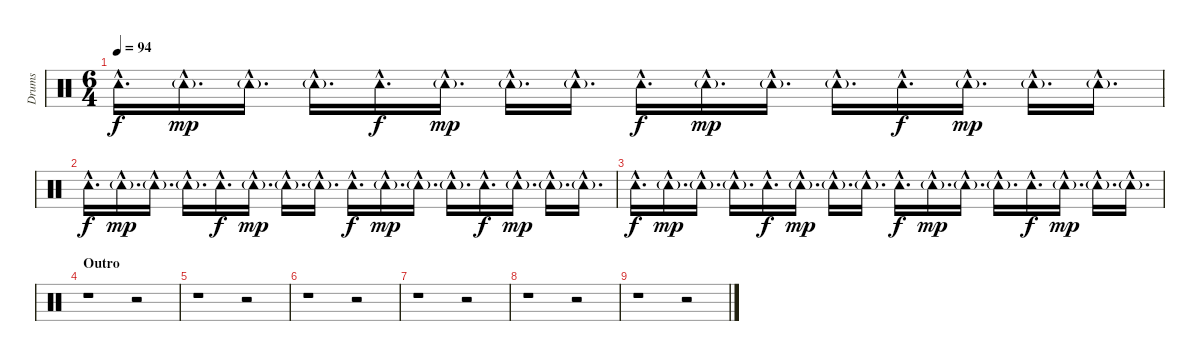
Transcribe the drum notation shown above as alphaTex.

\track ("Drums" "Drums") {instrument percussion}
\staff {score}
\articulation defaults
\ts (6 4)
\tempo 94
\clef neutral
\ks c "Tambourine (hit)"{hac}.16{d dy f} "Tambourine (hit)"{g hac}.16{d dy mp} "Tambourine (hit)"{g hac}.16{d} "Tambourine (hit)"{g hac}.16{d} "Tambourine (hit)"{hac}.16{d dy f} "Tambourine (hit)"{g hac}.16{d dy mp} "Tambourine (hit)"{g hac}.16{d} "Tambourine (hit)"{g hac}.16{d} "Tambourine (hit)"{hac}.16{d dy f} "Tambourine (hit)"{g hac}.16{d dy mp} "Tambourine (hit)"{g hac}.16{d} "Tambourine (hit)"{g hac}.16{d} "Tambourine (hit)"{hac}.16{d dy f} "Tambourine (hit)"{g hac}.16{d dy mp} "Tambourine (hit)"{g hac}.16{d} "Tambourine (hit)"{g hac}.16{d}
|
"Tambourine (hit)"{hac}.16{d dy f} "Tambourine (hit)"{g hac}.16{d dy mp} "Tambourine (hit)"{g hac}.16{d} "Tambourine (hit)"{g hac}.16{d} "Tambourine (hit)"{hac}.16{d dy f} "Tambourine (hit)"{g hac}.16{d dy mp} "Tambourine (hit)"{g hac}.16{d} "Tambourine (hit)"{g hac}.16{d} "Tambourine (hit)"{hac}.16{d dy f} "Tambourine (hit)"{g hac}.16{d dy mp} "Tambourine (hit)"{g hac}.16{d} "Tambourine (hit)"{g hac}.16{d} "Tambourine (hit)"{hac}.16{d dy f} "Tambourine (hit)"{g hac}.16{d dy mp} "Tambourine (hit)"{g hac}.16{d} "Tambourine (hit)"{g hac}.16{d} |
"Tambourine (hit)"{hac}.16{d dy f} "Tambourine (hit)"{g hac}.16{d dy mp} "Tambourine (hit)"{g hac}.16{d} "Tambourine (hit)"{g hac}.16{d} "Tambourine (hit)"{hac}.16{d dy f} "Tambourine (hit)"{g hac}.16{d dy mp} "Tambourine (hit)"{g hac}.16{d} "Tambourine (hit)"{g hac}.16{d} "Tambourine (hit)"{hac}.16{d dy f} "Tambourine (hit)"{g hac}.16{d dy mp} "Tambourine (hit)"{g hac}.16{d} "Tambourine (hit)"{g hac}.16{d} "Tambourine (hit)"{hac}.16{d dy f} "Tambourine (hit)"{g hac}.16{d dy mp} "Tambourine (hit)"{g hac}.16{d} "Tambourine (hit)"{g hac}.16{d} |
\section ("" "Outro")
r.1 r.2 |
r.1 r.2 |
r.1 r.2 |
r.1 r.2 |
r.1 r.2 |
r.1 r.2
